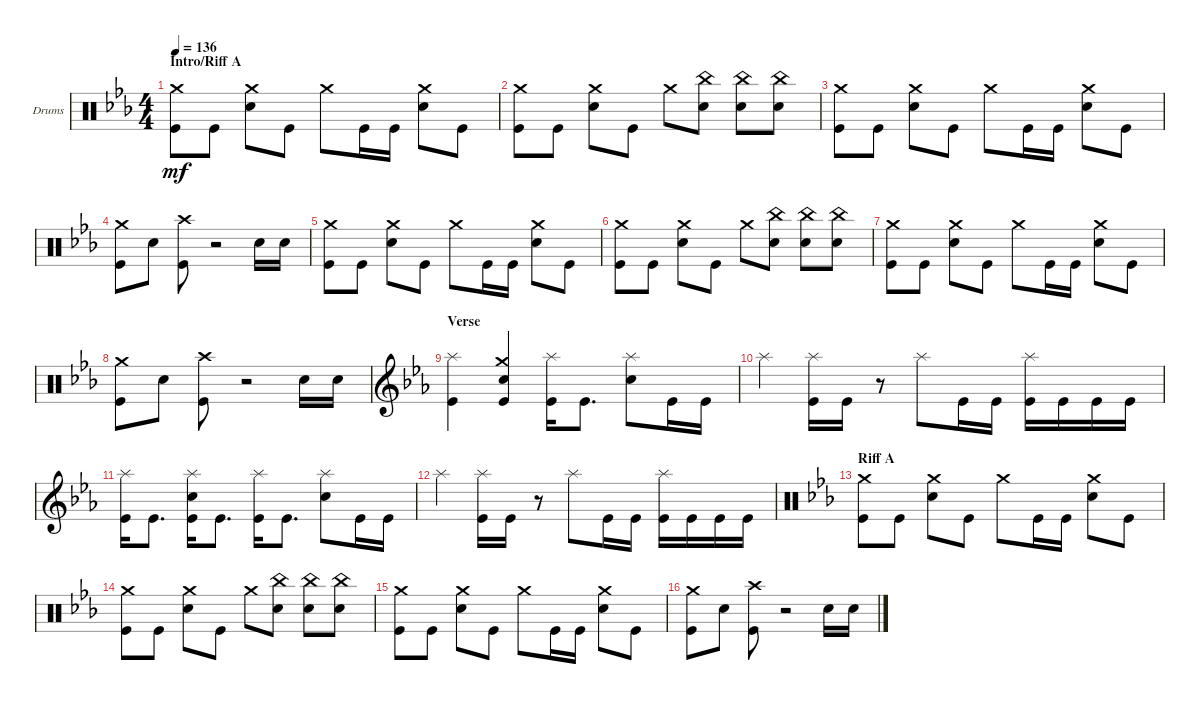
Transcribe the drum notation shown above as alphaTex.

\defaultSystemsLayout 4
\bracketExtendMode groupsimilarinstruments
\firstSystemTrackNameOrientation horizontal
\otherSystemsTrackNameOrientation horizontal
\track ("Drumkit" "Drums") {instrument percussion}
\staff {score}
\articulation defaults
\ts (4 4)
\section ("" "Intro/Riff A")
\tempo 136
\clef neutral
\scale
0.525
\ks cminor
("Kick (hit)" "Crash medium (hit)").8{dy mf} "Kick (hit)".8 ("Snare (hit) 2" "Crash medium (hit)").8 "Kick (hit)".8 "Crash medium (hit)".8 "Kick (hit)".16 "Kick (hit)".16 ("Snare (hit) 2" "Crash medium (hit)").8 "Kick (hit)".8 |
\scale
0.2375 ("Kick (hit)" "Crash medium (hit)").8 "Kick (hit)".8 ("Snare (hit) 2" "Crash medium (hit)").8 "Kick (hit)".8 "Crash medium (hit)".8 ("Snare (hit) 2" "China (hit)").8 ("Snare (hit) 2" "China (hit)").8 ("Snare (hit) 2" "China (hit)").8 |
\scale
0.2375 ("Kick (hit)" "Crash medium (hit)").8 "Kick (hit)".8 ("Snare (hit) 2" "Crash medium (hit)").8 "Kick (hit)".8 "Crash medium (hit)".8 "Kick (hit)".16 "Kick (hit)".16 ("Snare (hit) 2" "Crash medium (hit)").8 "Kick (hit)".8 |
\scale
0.333333 ("Kick (hit)" "Crash medium (hit)").8 "Snare (hit) 2".8 ("Kick (hit)" "Crash high (hit)").8 r.2 "Snare (hit) 2".16 "Snare (hit) 2".16 |
\scale
0.333333 ("Kick (hit)" "Crash medium (hit)").8 "Kick (hit)".8 ("Snare (hit) 2" "Crash medium (hit)").8 "Kick (hit)".8 "Crash medium (hit)".8 "Kick (hit)".16 "Kick (hit)".16 ("Snare (hit) 2" "Crash medium (hit)").8 "Kick (hit)".8 |
\scale
0.333333 ("Kick (hit)" "Crash medium (hit)").8 "Kick (hit)".8 ("Snare (hit) 2" "Crash medium (hit)").8 "Kick (hit)".8 "Crash medium (hit)".8 ("Snare (hit) 2" "China (hit)").8 ("Snare (hit) 2" "China (hit)").8 ("Snare (hit) 2" "China (hit)").8 |
\scale
0.333333 ("Kick (hit)" "Crash medium (hit)").8 "Kick (hit)".8 ("Snare (hit) 2" "Crash medium (hit)").8 "Kick (hit)".8 "Crash medium (hit)".8 "Kick (hit)".16 "Kick (hit)".16 ("Snare (hit) 2" "Crash medium (hit)").8 "Kick (hit)".8 |
\scale
0.333333 ("Kick (hit)" "Crash medium (hit)").8 "Snare (hit) 2".8 ("Kick (hit)" "Crash high (hit)").8 r.2 "Snare (hit) 2".16 "Snare (hit) 2".16 |
\section ("" "Verse")
\clef g2
\scale
0.333333 ("Kick (hit)" "Splash (hit)").4 ("Kick (hit)" "Snare (hit) 2" "Crash medium (hit)").4 ("Kick (hit)" "Splash (hit)").16 "Kick (hit)".8{d} ("Snare (hit) 2" "Splash (hit)").8 "Kick (hit)".16 "Kick (hit)".16 |
\scale
0.333333 "Splash (hit)".4 ("Kick (hit)" "Splash (hit)").16 "Kick (hit)".16 r.8 "Splash (hit)".8 "Kick (hit)".16 "Kick (hit)".16 ("Kick (hit)" "Splash (hit)").16 "Kick (hit)".16 "Kick (hit)".16 "Kick (hit)".16 |
\scale
0.333333 ("Kick (hit)" "Splash (hit)").16 "Kick (hit)".8{d} ("Kick (hit)" "Snare (hit) 2" "Splash (hit)").16 "Kick (hit)".8{d} ("Kick (hit)" "Splash (hit)").16 "Kick (hit)".8{d} ("Snare (hit) 2" "Splash (hit)").8 "Kick (hit)".16 "Kick (hit)".16 |
\scale
0.333333 "Splash (hit)".4 ("Kick (hit)" "Splash (hit)").16 "Kick (hit)".16 r.8 "Splash (hit)".8 "Kick (hit)".16 "Kick (hit)".16 ("Kick (hit)" "Splash (hit)").16 "Kick (hit)".16 "Kick (hit)".16 "Kick (hit)".16 |
\section ("" "Riff A")
\clef neutral
\scale
0.333333 ("Kick (hit)" "Crash medium (hit)").8 "Kick (hit)".8 ("Snare (hit) 2" "Crash medium (hit)").8 "Kick (hit)".8 "Crash medium (hit)".8 "Kick (hit)".16 "Kick (hit)".16 ("Snare (hit) 2" "Crash medium (hit)").8 "Kick (hit)".8 |
\scale
0.333333 ("Kick (hit)" "Crash medium (hit)").8 "Kick (hit)".8 ("Snare (hit) 2" "Crash medium (hit)").8 "Kick (hit)".8 "Crash medium (hit)".8 ("Snare (hit) 2" "China (hit)").8 ("Snare (hit) 2" "China (hit)").8 ("Snare (hit) 2" "China (hit)").8 |
\scale
0.333333 ("Kick (hit)" "Crash medium (hit)").8 "Kick (hit)".8 ("Snare (hit) 2" "Crash medium (hit)").8 "Kick (hit)".8 "Crash medium (hit)".8 "Kick (hit)".16 "Kick (hit)".16 ("Snare (hit) 2" "Crash medium (hit)").8 "Kick (hit)".8 |
\scale
0.333333 ("Kick (hit)" "Crash medium (hit)").8 "Snare (hit) 2".8 ("Kick (hit)" "Crash high (hit)").8 r.2 "Snare (hit) 2".16 "Snare (hit) 2".16
